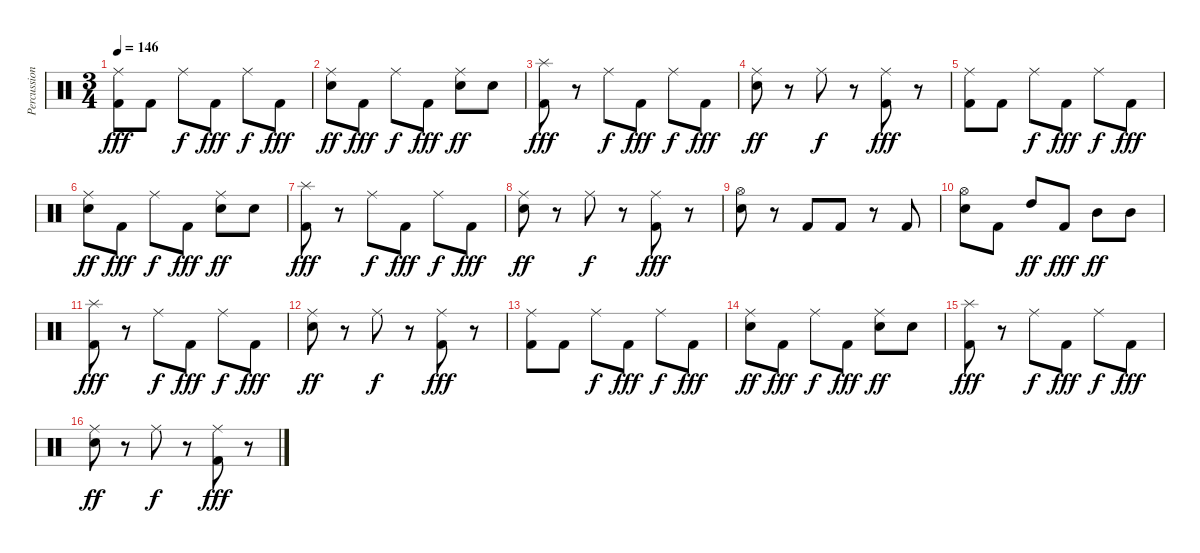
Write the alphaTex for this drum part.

\track ("Percussions" "Percussion") {instrument percussion}
\staff {score}
\articulation defaults
\ts (3 4)
\tempo 146
\clef neutral
\ks c
("Ride (middle)" "Kick (hit) 2").8{dy fff} "Kick (hit) 2".8 "Ride (middle)".8{dy f} "Kick (hit) 2".8{dy fff} "Ride (middle)".8{dy f} "Kick (hit) 2".8{dy fff} |
("Ride (middle)" "Snare (hit) 2").8{dy ff} "Kick (hit) 2".8{dy fff} "Ride (middle)".8{dy f} "Kick (hit) 2".8{dy fff} ("Ride (middle)" "Snare (hit) 2").8{dy ff} "Snare (hit) 2".8 |
("Splash (hit)" "Kick (hit) 2").8{dy fff} r.8 "Ride (middle)".8{dy f} "Kick (hit) 2".8{dy fff} "Ride (middle)".8{dy f} "Kick (hit) 2".8{dy fff} |
("Ride (middle)" "Snare (hit) 2").8{dy ff} r.8 "Ride (middle)".8{dy f} r.8 ("Ride (middle)" "Kick (hit) 2").8{dy fff} r.8 |
("Ride (middle)" "Kick (hit) 2").8 "Kick (hit) 2".8 "Ride (middle)".8{dy f} "Kick (hit) 2".8{dy fff} "Ride (middle)".8{dy f} "Kick (hit) 2".8{dy fff} |
("Ride (middle)" "Snare (hit) 2").8{dy ff} "Kick (hit) 2".8{dy fff} "Ride (middle)".8{dy f} "Kick (hit) 2".8{dy fff} ("Ride (middle)" "Snare (hit) 2").8{dy ff} "Snare (hit) 2".8 |
("Splash (hit)" "Kick (hit) 2").8{dy fff} r.8 "Ride (middle)".8{dy f} "Kick (hit) 2".8{dy fff} "Ride (middle)".8{dy f} "Kick (hit) 2".8{dy fff} |
("Ride (middle)" "Snare (hit) 2").8{dy ff} r.8 "Ride (middle)".8{dy f} r.8 ("Ride (middle)" "Kick (hit) 2").8{dy fff} r.8 |
("Hi-Hat (open)" "Snare (hit) 2").8 r.8 "Kick (hit) 2".8 "Kick (hit) 2".8 r.8 "Kick (hit) 2".8 |
("Hi-Hat (open)" "Snare (hit) 2").8 "Kick (hit) 2".8 "High Tom (hit)".8{dy ff} "Kick (hit) 2".8{dy fff} "Mid Tom (hit)".8{dy ff} "Mid Tom (hit)".8 |
("Splash (hit)" "Kick (hit) 2").8{dy fff} r.8 "Ride (middle)".8{dy f} "Kick (hit) 2".8{dy fff} "Ride (middle)".8{dy f} "Kick (hit) 2".8{dy fff} |
("Ride (middle)" "Snare (hit) 2").8{dy ff} r.8 "Ride (middle)".8{dy f} r.8 ("Ride (middle)" "Kick (hit) 2").8{dy fff} r.8 |
("Ride (middle)" "Kick (hit) 2").8 "Kick (hit) 2".8 "Ride (middle)".8{dy f} "Kick (hit) 2".8{dy fff} "Ride (middle)".8{dy f} "Kick (hit) 2".8{dy fff} |
("Ride (middle)" "Snare (hit) 2").8{dy ff} "Kick (hit) 2".8{dy fff} "Ride (middle)".8{dy f} "Kick (hit) 2".8{dy fff} ("Ride (middle)" "Snare (hit) 2").8{dy ff} "Snare (hit) 2".8 |
("Splash (hit)" "Kick (hit) 2").8{dy fff} r.8 "Ride (middle)".8{dy f} "Kick (hit) 2".8{dy fff} "Ride (middle)".8{dy f} "Kick (hit) 2".8{dy fff} |
("Ride (middle)" "Snare (hit) 2").8{dy ff} r.8 "Ride (middle)".8{dy f} r.8 ("Ride (middle)" "Kick (hit) 2").8{dy fff} r.8
